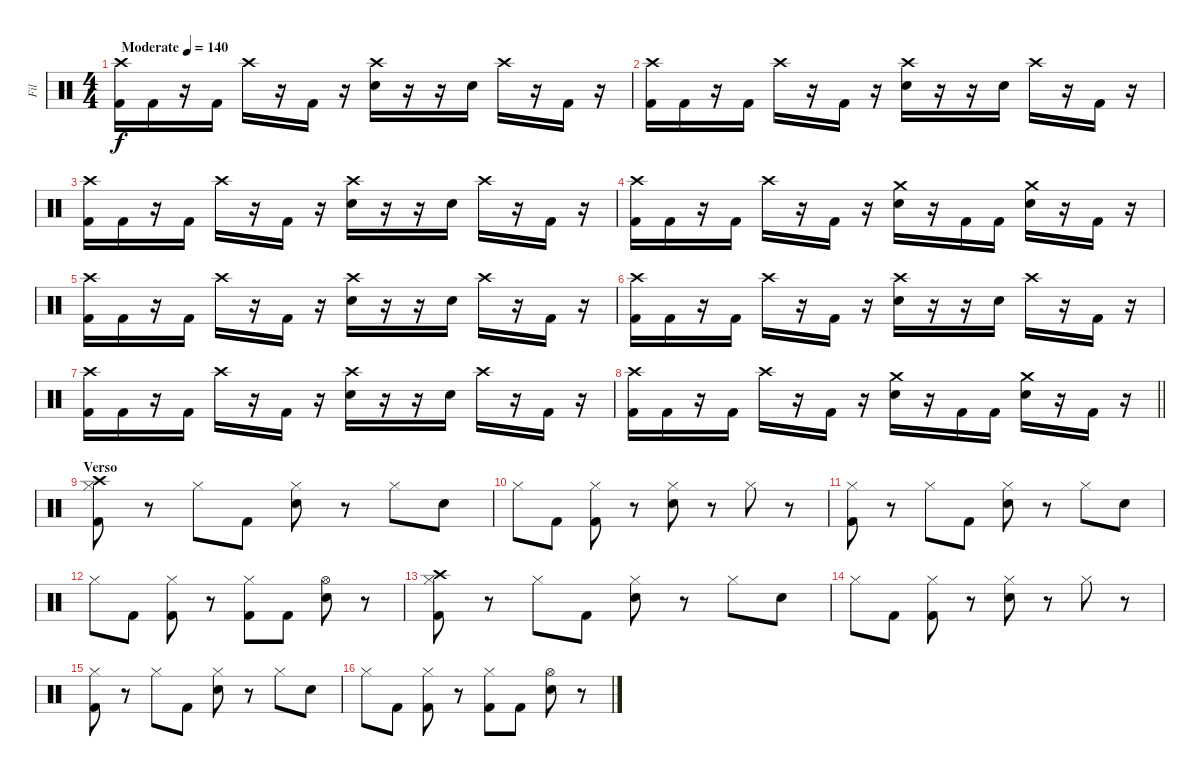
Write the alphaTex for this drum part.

\track ("Fil" "Fil") {instrument percussion}
\staff {score}
\articulation defaults
\ts (4 4)
\tempo (140 "Moderate")
\clef neutral
\ks c
("Crash high (hit)" "Kick (hit) 2").16{dy f} "Kick (hit) 2".16 r.16 "Kick (hit) 2".16 "Crash high (hit)".16 r.16 "Kick (hit) 2".16 r.16 ("Crash high (hit)" "Electric Snare (hit)").16 r.16 r.16 "Electric Snare (hit)".16 "Crash high (hit)".16 r.16 "Kick (hit) 2".16 r.16 |
("Crash high (hit)" "Kick (hit) 2").16 "Kick (hit) 2".16 r.16 "Kick (hit) 2".16 "Crash high (hit)".16 r.16 "Kick (hit) 2".16 r.16 ("Crash high (hit)" "Electric Snare (hit)").16 r.16 r.16 "Electric Snare (hit)".16 "Crash high (hit)".16 r.16 "Kick (hit) 2".16 r.16 |
("Crash high (hit)" "Kick (hit) 2").16 "Kick (hit) 2".16 r.16 "Kick (hit) 2".16 "Crash high (hit)".16 r.16 "Kick (hit) 2".16 r.16 ("Crash high (hit)" "Electric Snare (hit)").16 r.16 r.16 "Electric Snare (hit)".16 "Crash high (hit)".16 r.16 "Kick (hit) 2".16 r.16 |
("Crash high (hit)" "Kick (hit) 2").16 "Kick (hit) 2".16 r.16 "Kick (hit) 2".16 "Crash high (hit)".16 r.16 "Kick (hit) 2".16 r.16 ("Crash medium (hit)" "Electric Snare (hit)").16 r.16 "Kick (hit) 2".16 "Kick (hit) 2".16 ("Crash medium (hit)" "Electric Snare (hit)").16 r.16 "Kick (hit) 2".16 r.16 |
("Crash high (hit)" "Kick (hit) 2").16 "Kick (hit) 2".16 r.16 "Kick (hit) 2".16 "Crash high (hit)".16 r.16 "Kick (hit) 2".16 r.16 ("Crash high (hit)" "Electric Snare (hit)").16 r.16 r.16 "Electric Snare (hit)".16 "Crash high (hit)".16 r.16 "Kick (hit) 2".16 r.16 |
("Crash high (hit)" "Kick (hit) 2").16 "Kick (hit) 2".16 r.16 "Kick (hit) 2".16 "Crash high (hit)".16 r.16 "Kick (hit) 2".16 r.16 ("Crash high (hit)" "Electric Snare (hit)").16 r.16 r.16 "Electric Snare (hit)".16 "Crash high (hit)".16 r.16 "Kick (hit) 2".16 r.16 |
("Crash high (hit)" "Kick (hit) 2").16 "Kick (hit) 2".16 r.16 "Kick (hit) 2".16 "Crash high (hit)".16 r.16 "Kick (hit) 2".16 r.16 ("Crash high (hit)" "Electric Snare (hit)").16 r.16 r.16 "Electric Snare (hit)".16 "Crash high (hit)".16 r.16 "Kick (hit) 2".16 r.16 |
\barLineRight lightlight
("Crash high (hit)" "Kick (hit) 2").16 "Kick (hit) 2".16 r.16 "Kick (hit) 2".16 "Crash high (hit)".16 r.16 "Kick (hit) 2".16 r.16 ("Crash medium (hit)" "Electric Snare (hit)").16 r.16 "Kick (hit) 2".16 "Kick (hit) 2".16 ("Crash medium (hit)" "Electric Snare (hit)").16 r.16 "Kick (hit) 2".16 r.16 |
\section ("" "Verso")
("Crash high (hit)" "Hi-Hat (closed)" "Kick (hit) 2").8 r.8 "Hi-Hat (closed)".8 "Kick (hit) 2".8 ("Hi-Hat (closed)" "Electric Snare (hit)").8 r.8 "Hi-Hat (closed)".8 "Electric Snare (hit)".8 |
"Hi-Hat (closed)".8 "Kick (hit) 2".8 ("Hi-Hat (closed)" "Kick (hit) 2").8 r.8 ("Hi-Hat (closed)" "Electric Snare (hit)").8 r.8 "Hi-Hat (closed)".8 r.8 |
("Hi-Hat (closed)" "Kick (hit) 2").8 r.8 "Hi-Hat (closed)".8 "Kick (hit) 2".8 ("Hi-Hat (closed)" "Electric Snare (hit)").8 r.8 "Hi-Hat (closed)".8 "Electric Snare (hit)".8 |
"Hi-Hat (closed)".8 "Kick (hit) 2".8 ("Hi-Hat (closed)" "Kick (hit) 2").8 r.8 ("Hi-Hat (closed)" "Kick (hit) 2").8 "Kick (hit) 2".8 ("Hi-Hat (open)" "Electric Snare (hit)").8 r.8 |
("Crash high (hit)" "Hi-Hat (closed)" "Kick (hit) 2").8 r.8 "Hi-Hat (closed)".8 "Kick (hit) 2".8 ("Hi-Hat (closed)" "Electric Snare (hit)").8 r.8 "Hi-Hat (closed)".8 "Electric Snare (hit)".8 |
"Hi-Hat (closed)".8 "Kick (hit) 2".8 ("Hi-Hat (closed)" "Kick (hit) 2").8 r.8 ("Hi-Hat (closed)" "Electric Snare (hit)").8 r.8 "Hi-Hat (closed)".8 r.8 |
("Hi-Hat (closed)" "Kick (hit) 2").8 r.8 "Hi-Hat (closed)".8 "Kick (hit) 2".8 ("Hi-Hat (closed)" "Electric Snare (hit)").8 r.8 "Hi-Hat (closed)".8 "Electric Snare (hit)".8 |
"Hi-Hat (closed)".8 "Kick (hit) 2".8 ("Hi-Hat (closed)" "Kick (hit) 2").8 r.8 ("Hi-Hat (closed)" "Kick (hit) 2").8 "Kick (hit) 2".8 ("Hi-Hat (open)" "Electric Snare (hit)").8 r.8
